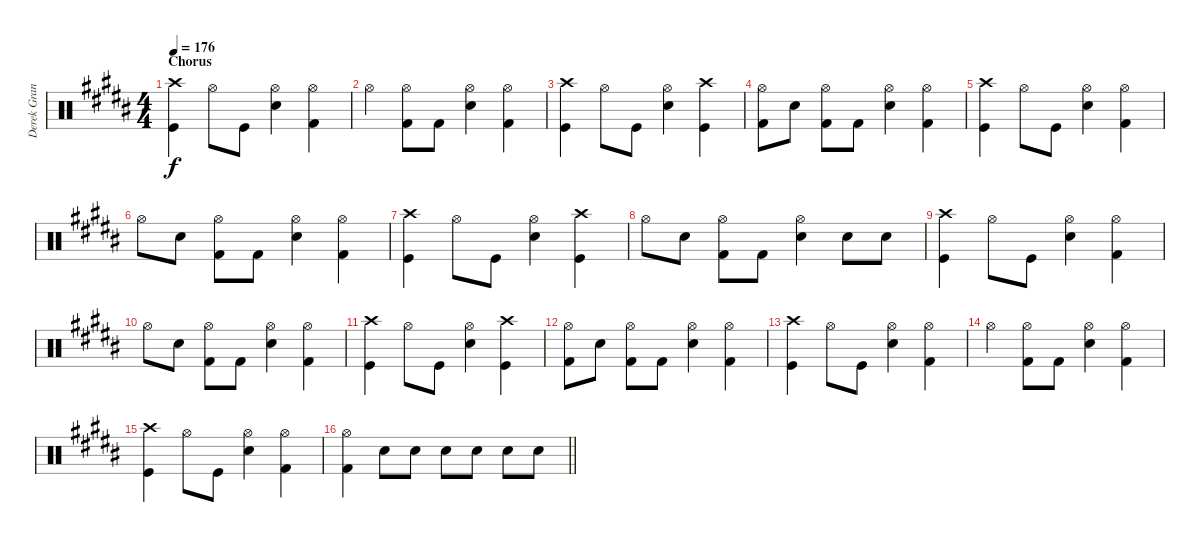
\track ("Derek Grant - Drums" "Derek Gran") {instrument percussion}
\staff {score}
\articulation defaults
\ts (4 4)
\section ("" "Chorus")
\tempo 176
\clef neutral
\ks b
("Kick (hit)" "Crash high (hit)").4{dy f} "Hi-Hat (open)".8 "Kick (hit)".8 ("Snare (hit) 2" "Hi-Hat (open)").4 ("Kick (hit) 2" "Hi-Hat (open)").4 |
"Hi-Hat (open)".4 ("Kick (hit) 2" "Hi-Hat (open)").8 "Kick (hit) 2".8 ("Snare (hit) 2" "Hi-Hat (open)").4 ("Kick (hit) 2" "Hi-Hat (open)").4 |
("Kick (hit)" "Crash high (hit)").4 "Hi-Hat (open)".8 "Kick (hit)".8 ("Snare (hit) 2" "Hi-Hat (open)").4 ("Kick (hit)" "Crash high (hit)").4 |
("Kick (hit) 2" "Hi-Hat (open)").8 "Snare (hit) 2".8 ("Kick (hit) 2" "Hi-Hat (open)").8 "Kick (hit) 2".8 ("Snare (hit) 2" "Hi-Hat (open)").4 ("Kick (hit) 2" "Hi-Hat (open)").4 |
("Kick (hit)" "Crash high (hit)").4 "Hi-Hat (open)".8 "Kick (hit)".8 ("Snare (hit) 2" "Hi-Hat (open)").4 ("Kick (hit) 2" "Hi-Hat (open)").4 |
"Hi-Hat (open)".8 "Snare (hit) 2".8 ("Kick (hit) 2" "Hi-Hat (open)").8 "Kick (hit) 2".8 ("Snare (hit) 2" "Hi-Hat (open)").4 ("Kick (hit) 2" "Hi-Hat (open)").4 |
("Kick (hit)" "Crash high (hit)").4 "Hi-Hat (open)".8 "Kick (hit)".8 ("Snare (hit) 2" "Hi-Hat (open)").4 ("Kick (hit)" "Crash high (hit)").4 |
"Hi-Hat (open)".8 "Snare (hit) 2".8 ("Kick (hit) 2" "Hi-Hat (open)").8 "Kick (hit) 2".8 ("Snare (hit) 2" "Hi-Hat (open)").4 "Snare (hit) 2".8 "Snare (hit) 2".8 |
("Kick (hit)" "Crash high (hit)").4 "Hi-Hat (open)".8 "Kick (hit)".8 ("Snare (hit) 2" "Hi-Hat (open)").4 ("Kick (hit) 2" "Hi-Hat (open)").4 |
"Hi-Hat (open)".8 "Snare (hit) 2".8 ("Kick (hit) 2" "Hi-Hat (open)").8 "Kick (hit) 2".8 ("Snare (hit) 2" "Hi-Hat (open)").4 ("Kick (hit) 2" "Hi-Hat (open)").4 |
("Kick (hit)" "Crash high (hit)").4 "Hi-Hat (open)".8 "Kick (hit)".8 ("Snare (hit) 2" "Hi-Hat (open)").4 ("Kick (hit)" "Crash high (hit)").4 |
("Kick (hit) 2" "Hi-Hat (open)").8 "Snare (hit) 2".8 ("Kick (hit) 2" "Hi-Hat (open)").8 "Kick (hit) 2".8 ("Snare (hit) 2" "Hi-Hat (open)").4 ("Kick (hit) 2" "Hi-Hat (open)").4 |
("Kick (hit)" "Crash high (hit)").4 "Hi-Hat (open)".8 "Kick (hit)".8 ("Snare (hit) 2" "Hi-Hat (open)").4 ("Kick (hit) 2" "Hi-Hat (open)").4 |
"Hi-Hat (open)".4 ("Kick (hit) 2" "Hi-Hat (open)").8 "Kick (hit) 2".8 ("Snare (hit) 2" "Hi-Hat (open)").4 ("Kick (hit) 2" "Hi-Hat (open)").4 |
("Kick (hit)" "Crash high (hit)").4 "Hi-Hat (open)".8 "Kick (hit)".8 ("Snare (hit) 2" "Hi-Hat (open)").4 ("Kick (hit) 2" "Hi-Hat (open)").4 |
\barLineRight lightlight
("Kick (hit) 2" "Hi-Hat (open)").4 "Snare (hit) 2".8 "Snare (hit) 2".8 "Snare (hit) 2".8 "Snare (hit) 2".8 "Snare (hit) 2".8 "Snare (hit) 2".8
